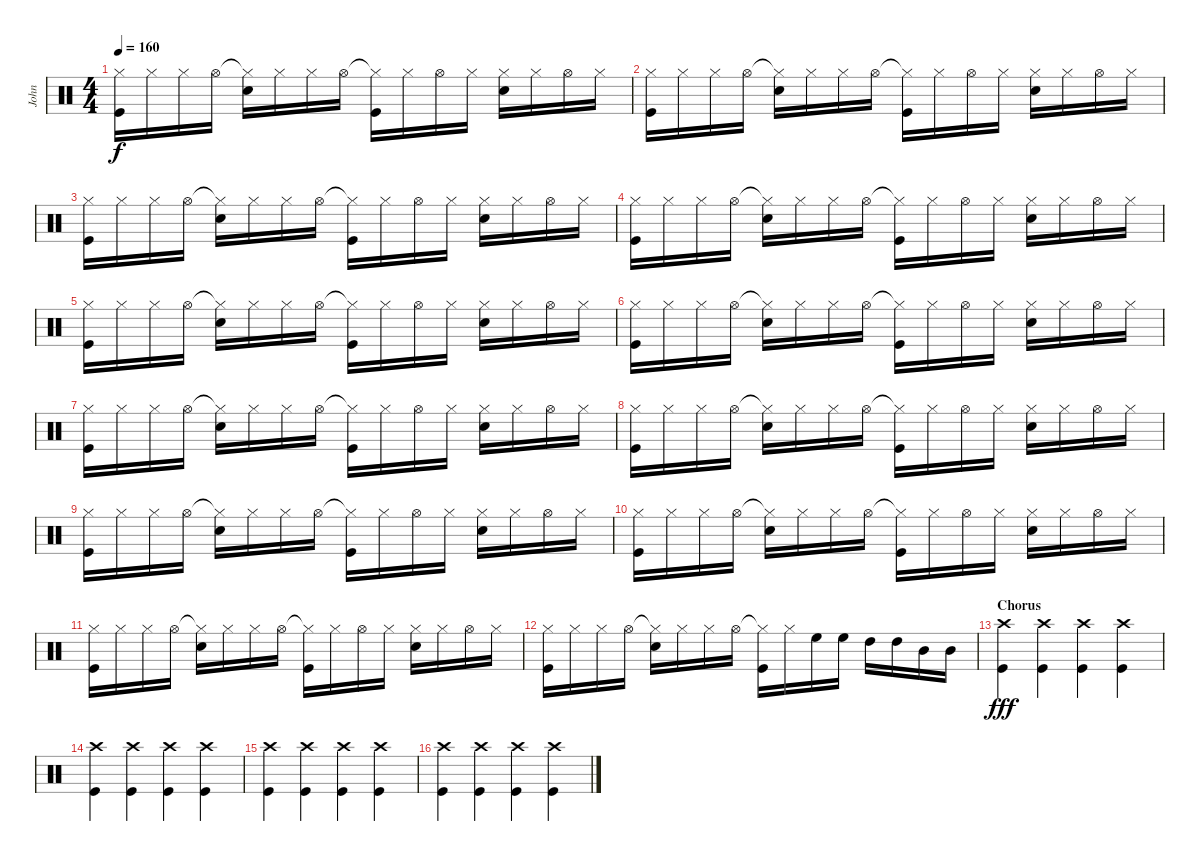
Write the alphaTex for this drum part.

\track ("John" "John") {instrument percussion}
\staff {score}
\articulation defaults
\ts (4 4)
\tempo 160
\clef neutral
\ks c
("Hi-Hat (closed)" "Kick (hit)").16{dy f} "Hi-Hat (closed)".16 "Hi-Hat (closed)".16 "Hi-Hat (open)".16 ("Hi-Hat (closed)"{t} "Electric Snare (hit)").16 "Hi-Hat (closed)".16 "Hi-Hat (closed)".16 "Hi-Hat (open)".16 ("Hi-Hat (closed)"{t} "Kick (hit)").16 "Hi-Hat (closed)".16 "Hi-Hat (open)".16 "Hi-Hat (closed)".16 ("Hi-Hat (closed)" "Electric Snare (hit)").16 "Hi-Hat (closed)".16 "Hi-Hat (open)".16 "Hi-Hat (closed)".16 |
("Hi-Hat (closed)" "Kick (hit)").16 "Hi-Hat (closed)".16 "Hi-Hat (closed)".16 "Hi-Hat (open)".16 ("Hi-Hat (closed)"{t} "Electric Snare (hit)").16 "Hi-Hat (closed)".16 "Hi-Hat (closed)".16 "Hi-Hat (open)".16 ("Hi-Hat (closed)"{t} "Kick (hit)").16 "Hi-Hat (closed)".16 "Hi-Hat (open)".16 "Hi-Hat (closed)".16 ("Hi-Hat (closed)" "Electric Snare (hit)").16 "Hi-Hat (closed)".16 "Hi-Hat (open)".16 "Hi-Hat (closed)".16 |
("Hi-Hat (closed)" "Kick (hit)").16 "Hi-Hat (closed)".16 "Hi-Hat (closed)".16 "Hi-Hat (open)".16 ("Hi-Hat (closed)"{t} "Electric Snare (hit)").16 "Hi-Hat (closed)".16 "Hi-Hat (closed)".16 "Hi-Hat (open)".16 ("Hi-Hat (closed)"{t} "Kick (hit)").16 "Hi-Hat (closed)".16 "Hi-Hat (open)".16 "Hi-Hat (closed)".16 ("Hi-Hat (closed)" "Electric Snare (hit)").16 "Hi-Hat (closed)".16 "Hi-Hat (open)".16 "Hi-Hat (closed)".16 |
("Hi-Hat (closed)" "Kick (hit)").16 "Hi-Hat (closed)".16 "Hi-Hat (closed)".16 "Hi-Hat (open)".16 ("Hi-Hat (closed)"{t} "Electric Snare (hit)").16 "Hi-Hat (closed)".16 "Hi-Hat (closed)".16 "Hi-Hat (open)".16 ("Hi-Hat (closed)"{t} "Kick (hit)").16 "Hi-Hat (closed)".16 "Hi-Hat (open)".16 "Hi-Hat (closed)".16 ("Hi-Hat (closed)" "Electric Snare (hit)").16 "Hi-Hat (closed)".16 "Hi-Hat (open)".16 "Hi-Hat (closed)".16 |
("Hi-Hat (closed)" "Kick (hit)").16 "Hi-Hat (closed)".16 "Hi-Hat (closed)".16 "Hi-Hat (open)".16 ("Hi-Hat (closed)"{t} "Electric Snare (hit)").16 "Hi-Hat (closed)".16 "Hi-Hat (closed)".16 "Hi-Hat (open)".16 ("Hi-Hat (closed)"{t} "Kick (hit)").16 "Hi-Hat (closed)".16 "Hi-Hat (open)".16 "Hi-Hat (closed)".16 ("Hi-Hat (closed)" "Electric Snare (hit)").16 "Hi-Hat (closed)".16 "Hi-Hat (open)".16 "Hi-Hat (closed)".16 |
("Hi-Hat (closed)" "Kick (hit)").16 "Hi-Hat (closed)".16 "Hi-Hat (closed)".16 "Hi-Hat (open)".16 ("Hi-Hat (closed)"{t} "Electric Snare (hit)").16 "Hi-Hat (closed)".16 "Hi-Hat (closed)".16 "Hi-Hat (open)".16 ("Hi-Hat (closed)"{t} "Kick (hit)").16 "Hi-Hat (closed)".16 "Hi-Hat (open)".16 "Hi-Hat (closed)".16 ("Hi-Hat (closed)" "Electric Snare (hit)").16 "Hi-Hat (closed)".16 "Hi-Hat (open)".16 "Hi-Hat (closed)".16 |
("Hi-Hat (closed)" "Kick (hit)").16 "Hi-Hat (closed)".16 "Hi-Hat (closed)".16 "Hi-Hat (open)".16 ("Hi-Hat (closed)"{t} "Electric Snare (hit)").16 "Hi-Hat (closed)".16 "Hi-Hat (closed)".16 "Hi-Hat (open)".16 ("Hi-Hat (closed)"{t} "Kick (hit)").16 "Hi-Hat (closed)".16 "Hi-Hat (open)".16 "Hi-Hat (closed)".16 ("Hi-Hat (closed)" "Electric Snare (hit)").16 "Hi-Hat (closed)".16 "Hi-Hat (open)".16 "Hi-Hat (closed)".16 |
("Hi-Hat (closed)" "Kick (hit)").16 "Hi-Hat (closed)".16 "Hi-Hat (closed)".16 "Hi-Hat (open)".16 ("Hi-Hat (closed)"{t} "Electric Snare (hit)").16 "Hi-Hat (closed)".16 "Hi-Hat (closed)".16 "Hi-Hat (open)".16 ("Hi-Hat (closed)"{t} "Kick (hit)").16 "Hi-Hat (closed)".16 "Hi-Hat (open)".16 "Hi-Hat (closed)".16 ("Hi-Hat (closed)" "Electric Snare (hit)").16 "Hi-Hat (closed)".16 "Hi-Hat (open)".16 "Hi-Hat (closed)".16 |
("Hi-Hat (closed)" "Kick (hit)").16 "Hi-Hat (closed)".16 "Hi-Hat (closed)".16 "Hi-Hat (open)".16 ("Hi-Hat (closed)"{t} "Electric Snare (hit)").16 "Hi-Hat (closed)".16 "Hi-Hat (closed)".16 "Hi-Hat (open)".16 ("Hi-Hat (closed)"{t} "Kick (hit)").16 "Hi-Hat (closed)".16 "Hi-Hat (open)".16 "Hi-Hat (closed)".16 ("Hi-Hat (closed)" "Electric Snare (hit)").16 "Hi-Hat (closed)".16 "Hi-Hat (open)".16 "Hi-Hat (closed)".16 |
("Hi-Hat (closed)" "Kick (hit)").16 "Hi-Hat (closed)".16 "Hi-Hat (closed)".16 "Hi-Hat (open)".16 ("Hi-Hat (closed)"{t} "Electric Snare (hit)").16 "Hi-Hat (closed)".16 "Hi-Hat (closed)".16 "Hi-Hat (open)".16 ("Hi-Hat (closed)"{t} "Kick (hit)").16 "Hi-Hat (closed)".16 "Hi-Hat (open)".16 "Hi-Hat (closed)".16 ("Hi-Hat (closed)" "Electric Snare (hit)").16 "Hi-Hat (closed)".16 "Hi-Hat (open)".16 "Hi-Hat (closed)".16 |
("Hi-Hat (closed)" "Kick (hit)").16 "Hi-Hat (closed)".16 "Hi-Hat (closed)".16 "Hi-Hat (open)".16 ("Hi-Hat (closed)"{t} "Electric Snare (hit)").16 "Hi-Hat (closed)".16 "Hi-Hat (closed)".16 "Hi-Hat (open)".16 ("Hi-Hat (closed)"{t} "Kick (hit)").16 "Hi-Hat (closed)".16 "Hi-Hat (open)".16 "Hi-Hat (closed)".16 ("Hi-Hat (closed)" "Electric Snare (hit)").16 "Hi-Hat (closed)".16 "Hi-Hat (open)".16 "Hi-Hat (closed)".16 |
("Hi-Hat (closed)" "Kick (hit)").16 "Hi-Hat (closed)".16 "Hi-Hat (closed)".16 "Hi-Hat (open)".16 ("Hi-Hat (closed)"{t} "Electric Snare (hit)").16 "Hi-Hat (closed)".16 "Hi-Hat (closed)".16 "Hi-Hat (open)".16 ("Hi-Hat (closed)"{t} "Kick (hit)").16 "Hi-Hat (closed)".16 "High Floor Tom (hit)".16 "High Floor Tom (hit)".16 "High Tom (hit)".16 "High Tom (hit)".16 "Mid Tom (hit)".16 "Mid Tom (hit)".16 |
\section ("" "Chorus")
("Crash high (hit)" "Kick (hit)").4{dy fff} ("Crash high (hit)" "Kick (hit)").4 ("Crash high (hit)" "Kick (hit)").4 ("Crash high (hit)" "Kick (hit)").4 |
("Crash high (hit)" "Kick (hit)").4 ("Crash high (hit)" "Kick (hit)").4 ("Crash high (hit)" "Kick (hit)").4 ("Crash high (hit)" "Kick (hit)").4 |
("Crash high (hit)" "Kick (hit)").4 ("Crash high (hit)" "Kick (hit)").4 ("Crash high (hit)" "Kick (hit)").4 ("Crash high (hit)" "Kick (hit)").4 |
("Crash high (hit)" "Kick (hit)").4 ("Crash high (hit)" "Kick (hit)").4 ("Crash high (hit)" "Kick (hit)").4 ("Crash high (hit)" "Kick (hit)").4
